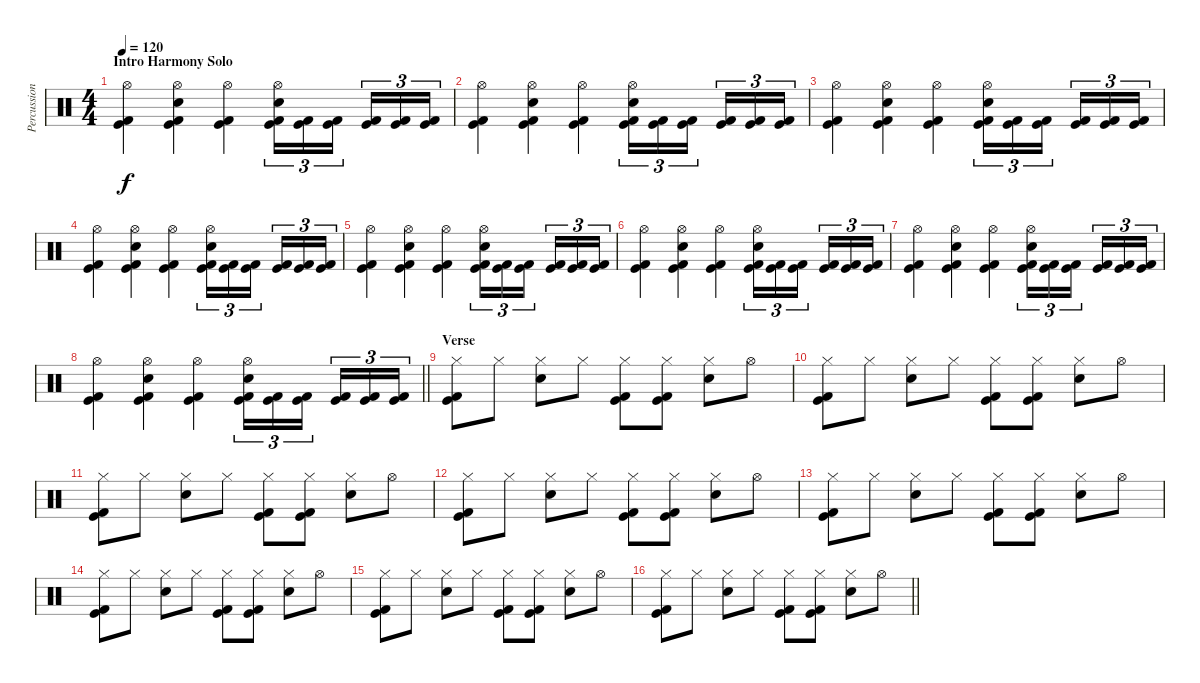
\track ("Percussion" "Percussion") {instrument percussion}
\staff {score}
\articulation defaults
\ts (4 4)
\section ("" "Intro Harmony Solo")
\tempo 120
\clef neutral
\ks c
("Hi-Hat (open)" "Kick (hit) 2" "Kick (hit)").4{dy f} ("Hi-Hat (open)" "Electric Snare (hit)" "Kick (hit) 2" "Kick (hit)").4 ("Hi-Hat (open)" "Kick (hit) 2" "Kick (hit)").4 ("Hi-Hat (open)" "Electric Snare (hit)" "Kick (hit) 2" "Kick (hit)").16{tu (3 2)} ("Kick (hit) 2" "Kick (hit)").16{tu (3 2)} ("Kick (hit) 2" "Kick (hit)").16{tu (3 2) beam splitsecondary} ("Kick (hit) 2" "Kick (hit)").16{tu (3 2)} ("Kick (hit) 2" "Kick (hit)").16{tu (3 2)} ("Kick (hit) 2" "Kick (hit)").16{tu (3 2)} |
("Hi-Hat (open)" "Kick (hit) 2" "Kick (hit)").4 ("Hi-Hat (open)" "Electric Snare (hit)" "Kick (hit) 2" "Kick (hit)").4 ("Hi-Hat (open)" "Kick (hit) 2" "Kick (hit)").4 ("Hi-Hat (open)" "Electric Snare (hit)" "Kick (hit) 2" "Kick (hit)").16{tu (3 2)} ("Kick (hit) 2" "Kick (hit)").16{tu (3 2)} ("Kick (hit) 2" "Kick (hit)").16{tu (3 2) beam splitsecondary} ("Kick (hit) 2" "Kick (hit)").16{tu (3 2)} ("Kick (hit) 2" "Kick (hit)").16{tu (3 2)} ("Kick (hit) 2" "Kick (hit)").16{tu (3 2)} |
("Hi-Hat (open)" "Kick (hit) 2" "Kick (hit)").4 ("Hi-Hat (open)" "Electric Snare (hit)" "Kick (hit) 2" "Kick (hit)").4 ("Hi-Hat (open)" "Kick (hit) 2" "Kick (hit)").4 ("Hi-Hat (open)" "Electric Snare (hit)" "Kick (hit) 2" "Kick (hit)").16{tu (3 2)} ("Kick (hit) 2" "Kick (hit)").16{tu (3 2)} ("Kick (hit) 2" "Kick (hit)").16{tu (3 2) beam splitsecondary} ("Kick (hit) 2" "Kick (hit)").16{tu (3 2)} ("Kick (hit) 2" "Kick (hit)").16{tu (3 2)} ("Kick (hit) 2" "Kick (hit)").16{tu (3 2)} |
("Hi-Hat (open)" "Kick (hit) 2" "Kick (hit)").4 ("Hi-Hat (open)" "Electric Snare (hit)" "Kick (hit) 2" "Kick (hit)").4 ("Hi-Hat (open)" "Kick (hit) 2" "Kick (hit)").4 ("Hi-Hat (open)" "Electric Snare (hit)" "Kick (hit) 2" "Kick (hit)").16{tu (3 2)} ("Kick (hit) 2" "Kick (hit)").16{tu (3 2)} ("Kick (hit) 2" "Kick (hit)").16{tu (3 2) beam splitsecondary} ("Kick (hit) 2" "Kick (hit)").16{tu (3 2)} ("Kick (hit) 2" "Kick (hit)").16{tu (3 2)} ("Kick (hit) 2" "Kick (hit)").16{tu (3 2)} |
("Hi-Hat (open)" "Kick (hit) 2" "Kick (hit)").4 ("Hi-Hat (open)" "Electric Snare (hit)" "Kick (hit) 2" "Kick (hit)").4 ("Hi-Hat (open)" "Kick (hit) 2" "Kick (hit)").4 ("Hi-Hat (open)" "Electric Snare (hit)" "Kick (hit) 2" "Kick (hit)").16{tu (3 2)} ("Kick (hit) 2" "Kick (hit)").16{tu (3 2)} ("Kick (hit) 2" "Kick (hit)").16{tu (3 2) beam splitsecondary} ("Kick (hit) 2" "Kick (hit)").16{tu (3 2)} ("Kick (hit) 2" "Kick (hit)").16{tu (3 2)} ("Kick (hit) 2" "Kick (hit)").16{tu (3 2)} |
("Hi-Hat (open)" "Kick (hit) 2" "Kick (hit)").4 ("Hi-Hat (open)" "Electric Snare (hit)" "Kick (hit) 2" "Kick (hit)").4 ("Hi-Hat (open)" "Kick (hit) 2" "Kick (hit)").4 ("Hi-Hat (open)" "Electric Snare (hit)" "Kick (hit) 2" "Kick (hit)").16{tu (3 2)} ("Kick (hit) 2" "Kick (hit)").16{tu (3 2)} ("Kick (hit) 2" "Kick (hit)").16{tu (3 2) beam splitsecondary} ("Kick (hit) 2" "Kick (hit)").16{tu (3 2)} ("Kick (hit) 2" "Kick (hit)").16{tu (3 2)} ("Kick (hit) 2" "Kick (hit)").16{tu (3 2)} |
("Hi-Hat (open)" "Kick (hit) 2" "Kick (hit)").4 ("Hi-Hat (open)" "Electric Snare (hit)" "Kick (hit) 2" "Kick (hit)").4 ("Hi-Hat (open)" "Kick (hit) 2" "Kick (hit)").4 ("Hi-Hat (open)" "Electric Snare (hit)" "Kick (hit) 2" "Kick (hit)").16{tu (3 2)} ("Kick (hit) 2" "Kick (hit)").16{tu (3 2)} ("Kick (hit) 2" "Kick (hit)").16{tu (3 2) beam splitsecondary} ("Kick (hit) 2" "Kick (hit)").16{tu (3 2)} ("Kick (hit) 2" "Kick (hit)").16{tu (3 2)} ("Kick (hit) 2" "Kick (hit)").16{tu (3 2)} |
\barLineRight lightlight
("Hi-Hat (open)" "Kick (hit) 2" "Kick (hit)").4 ("Hi-Hat (open)" "Electric Snare (hit)" "Kick (hit) 2" "Kick (hit)").4 ("Hi-Hat (open)" "Kick (hit) 2" "Kick (hit)").4 ("Hi-Hat (open)" "Electric Snare (hit)" "Kick (hit) 2" "Kick (hit)").16{tu (3 2)} ("Kick (hit) 2" "Kick (hit)").16{tu (3 2)} ("Kick (hit) 2" "Kick (hit)").16{tu (3 2) beam splitsecondary} ("Kick (hit) 2" "Kick (hit)").16{tu (3 2)} ("Kick (hit) 2" "Kick (hit)").16{tu (3 2)} ("Kick (hit) 2" "Kick (hit)").16{tu (3 2)} |
\section ("" "Verse")
("Hi-Hat (closed)" "Kick (hit) 2" "Kick (hit)").8 "Hi-Hat (closed)".8 ("Hi-Hat (closed)" "Electric Snare (hit)").8 "Hi-Hat (closed)".8 ("Hi-Hat (closed)" "Kick (hit) 2" "Kick (hit)").8 ("Hi-Hat (closed)" "Kick (hit) 2" "Kick (hit)").8 ("Hi-Hat (closed)" "Electric Snare (hit)").8 "Hi-Hat (open)".8 |
("Hi-Hat (closed)" "Kick (hit) 2" "Kick (hit)").8 "Hi-Hat (closed)".8 ("Hi-Hat (closed)" "Electric Snare (hit)").8 "Hi-Hat (closed)".8 ("Hi-Hat (closed)" "Kick (hit) 2" "Kick (hit)").8 ("Hi-Hat (closed)" "Kick (hit) 2" "Kick (hit)").8 ("Hi-Hat (closed)" "Electric Snare (hit)").8 "Hi-Hat (open)".8 |
("Hi-Hat (closed)" "Kick (hit) 2" "Kick (hit)").8 "Hi-Hat (closed)".8 ("Hi-Hat (closed)" "Electric Snare (hit)").8 "Hi-Hat (closed)".8 ("Hi-Hat (closed)" "Kick (hit) 2" "Kick (hit)").8 ("Hi-Hat (closed)" "Kick (hit) 2" "Kick (hit)").8 ("Hi-Hat (closed)" "Electric Snare (hit)").8 "Hi-Hat (open)".8 |
("Hi-Hat (closed)" "Kick (hit) 2" "Kick (hit)").8 "Hi-Hat (closed)".8 ("Hi-Hat (closed)" "Electric Snare (hit)").8 "Hi-Hat (closed)".8 ("Hi-Hat (closed)" "Kick (hit) 2" "Kick (hit)").8 ("Hi-Hat (closed)" "Kick (hit) 2" "Kick (hit)").8 ("Hi-Hat (closed)" "Electric Snare (hit)").8 "Hi-Hat (open)".8 |
("Hi-Hat (closed)" "Kick (hit) 2" "Kick (hit)").8 "Hi-Hat (closed)".8 ("Hi-Hat (closed)" "Electric Snare (hit)").8 "Hi-Hat (closed)".8 ("Hi-Hat (closed)" "Kick (hit) 2" "Kick (hit)").8 ("Hi-Hat (closed)" "Kick (hit) 2" "Kick (hit)").8 ("Hi-Hat (closed)" "Electric Snare (hit)").8 "Hi-Hat (open)".8 |
("Hi-Hat (closed)" "Kick (hit) 2" "Kick (hit)").8 "Hi-Hat (closed)".8 ("Hi-Hat (closed)" "Electric Snare (hit)").8 "Hi-Hat (closed)".8 ("Hi-Hat (closed)" "Kick (hit) 2" "Kick (hit)").8 ("Hi-Hat (closed)" "Kick (hit) 2" "Kick (hit)").8 ("Hi-Hat (closed)" "Electric Snare (hit)").8 "Hi-Hat (open)".8 |
("Hi-Hat (closed)" "Kick (hit) 2" "Kick (hit)").8 "Hi-Hat (closed)".8 ("Hi-Hat (closed)" "Electric Snare (hit)").8 "Hi-Hat (closed)".8 ("Hi-Hat (closed)" "Kick (hit) 2" "Kick (hit)").8 ("Hi-Hat (closed)" "Kick (hit) 2" "Kick (hit)").8 ("Hi-Hat (closed)" "Electric Snare (hit)").8 "Hi-Hat (open)".8 |
\barLineRight lightlight
("Hi-Hat (closed)" "Kick (hit) 2" "Kick (hit)").8 "Hi-Hat (closed)".8 ("Hi-Hat (closed)" "Electric Snare (hit)").8 "Hi-Hat (closed)".8 ("Hi-Hat (closed)" "Kick (hit) 2" "Kick (hit)").8 ("Hi-Hat (closed)" "Kick (hit) 2" "Kick (hit)").8 ("Hi-Hat (closed)" "Electric Snare (hit)").8 "Hi-Hat (open)".8
